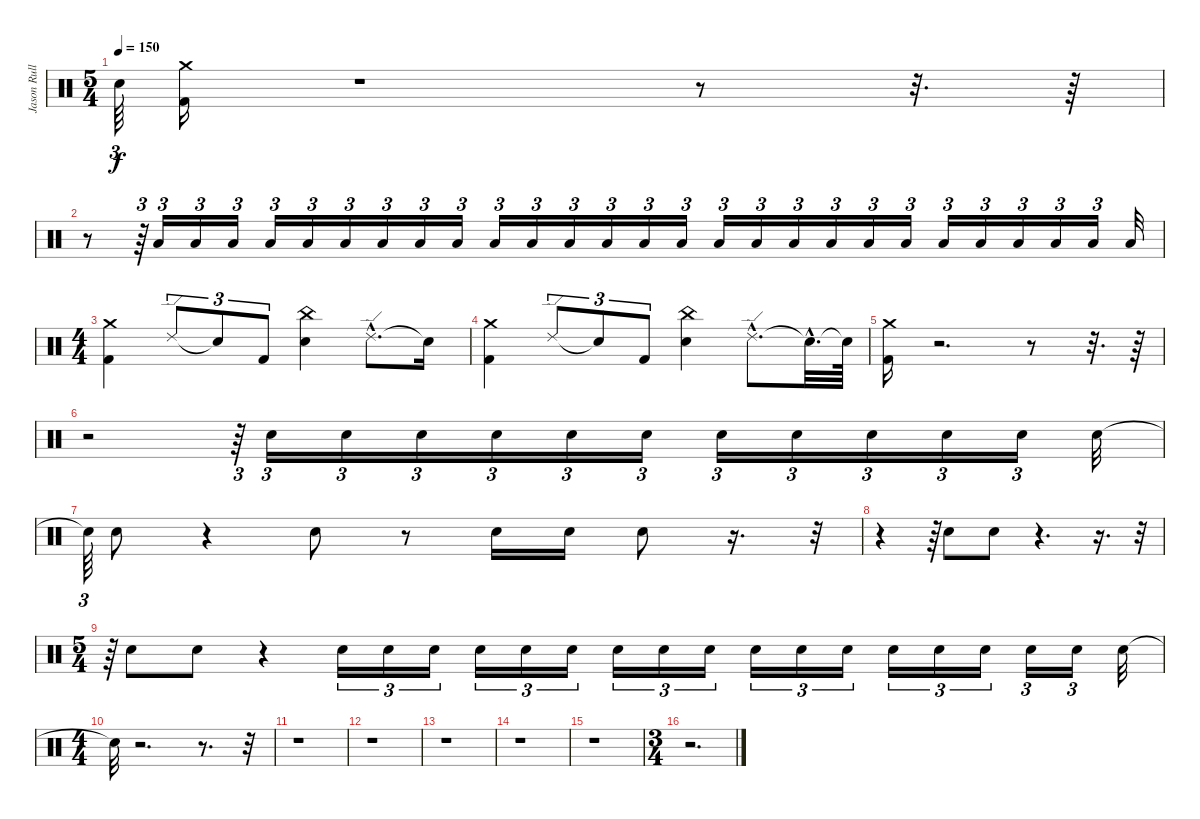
\track ("Jason Rullo" "Jason Rull") {instrument percussion}
\staff {score}
\articulation defaults
\ts (5 4)
\tempo 150
\clef neutral
\ks c "Snare (hit)"{t}.64{tu (3 2) dy f}
("Crash medium (hit)" "Kick (hit) 2").16 r.1 r.8 r.32{d} r.64 |
r.8 r.64{tu (3 2)} "Low Floor Tom (hit)".16{tu (3 2) volume 2} "Low Floor Tom (hit)".16{tu (3 2) volume 2} "Low Floor Tom (hit)".16{tu (3 2) volume 3} "Low Floor Tom (hit)".16{tu (3 2) volume 3} "Low Floor Tom (hit)".16{tu (3 2) volume 4} "Low Floor Tom (hit)".16{tu (3 2) volume 4} "Low Floor Tom (hit)".16{tu (3 2) volume 5} "Low Floor Tom (hit)".16{tu (3 2) volume 5} "Low Floor Tom (hit)".16{tu (3 2) volume 6} "Low Floor Tom (hit)".16{tu (3 2) volume 6} "Low Floor Tom (hit)".16{tu (3 2) volume 7} "Low Floor Tom (hit)".16{tu (3 2) volume 7} "Low Floor Tom (hit)".16{tu (3 2) volume 8} "Low Floor Tom (hit)".16{tu (3 2) volume 8} "Low Floor Tom (hit)".16{tu (3 2) volume 9} "Low Floor Tom (hit)".16{tu (3 2) volume 10} "Low Floor Tom (hit)".16{tu (3 2) volume 10} "Low Floor Tom (hit)".16{tu (3 2) volume 11} "Low Floor Tom (hit)".16{tu (3 2) volume 11} "Low Floor Tom (hit)".16{tu (3 2) volume 12} "Low Floor Tom (hit)".16{tu (3 2) volume 12} "Low Floor Tom (hit)".16{tu (3 2) volume 13} "Low Floor Tom (hit)".16{tu (3 2) volume 13} "Low Floor Tom (hit)".16{tu (3 2) volume 14} "Low Floor Tom (hit)".16{tu (3 2) volume 14} "Low Floor Tom (hit)".16{tu (3 2) volume 15} "Low Floor Tom (hit)".32{volume 15} |
\ts (4 4)
("Crash medium (hit)" "Kick (hit) 2").4{volume 16} "Ride (edge) 2".8{tu (3 2)} "Snare (hit)"{t}.8{tu (3 2)} "Kick (hit) 2".8{tu (3 2)} ("China (hit)" "Electric Snare (hit)").4 "Ride (edge) 2"{hac}.8{d} "Snare (hit)"{t}.16 |
("Crash medium (hit)" "Kick (hit) 2").4 "Ride (edge) 2".8{tu (3 2)} "Snare (hit)"{t}.8{tu (3 2)} "Kick (hit) 2".8{tu (3 2)} ("China (hit)" "Electric Snare (hit)").4 "Ride (edge) 2"{hac}.8{d} "Snare (hit)"{hac t}.32{d} "Snare (hit)"{t}.64 |
("Crash medium (hit)" "Kick (hit) 2").16 r.2{d} r.8 r.32{d} r.64 |
r.2 r.64{tu (3 2)} "Electric Snare (hit)".16{tu (3 2) volume 0} "Electric Snare (hit)".16{tu (3 2) volume 1} "Electric Snare (hit)".16{tu (3 2) volume 3} "Electric Snare (hit)".16{tu (3 2) volume 4} "Electric Snare (hit)".16{tu (3 2) volume 5} "Electric Snare (hit)".16{tu (3 2) volume 7} "Electric Snare (hit)".16{tu (3 2) volume 8} "Electric Snare (hit)".16{tu (3 2) volume 9} "Electric Snare (hit)".16{tu (3 2) volume 11} "Electric Snare (hit)".16{tu (3 2) volume 12} "Electric Snare (hit)".16{tu (3 2) volume 13} "Electric Snare (hit)".32{volume 15} |
"Snare (hit)"{t}.64{tu (3 2)} "Electric Snare (hit)".8{volume 16} r.4 "Electric Snare (hit)".8 r.8 "Electric Snare (hit)".16 "Electric Snare (hit)".16 "Electric Snare (hit)".8 r.16{d} r.32{tu (3 2)} |
r.4 r.64{tu (3 2)} "Electric Snare (hit)".8 "Electric Snare (hit)".8 r.4{d} r.16{d} r.32{tu (3 2)} |
\ts (5 4)
r.64{tu (3 2)} "Electric Snare (hit)".8 "Electric Snare (hit)".8 r.4 "Electric Snare (hit)".16{tu (3 2) volume 0} "Electric Snare (hit)".16{tu (3 2) volume 1} "Electric Snare (hit)".16{tu (3 2) volume 2} "Electric Snare (hit)".16{tu (3 2) volume 2} "Electric Snare (hit)".16{tu (3 2) volume 3} "Electric Snare (hit)".16{tu (3 2) volume 4} "Electric Snare (hit)".16{tu (3 2) volume 5} "Electric Snare (hit)".16{tu (3 2) volume 6} "Electric Snare (hit)".16{tu (3 2) volume 7} "Electric Snare (hit)".16{tu (3 2) volume 8} "Electric Snare (hit)".16{tu (3 2) volume 8} "Electric Snare (hit)".16{tu (3 2) volume 9} "Electric Snare (hit)".16{tu (3 2) volume 10} "Electric Snare (hit)".16{tu (3 2) volume 11} "Electric Snare (hit)".16{tu (3 2) volume 12} "Electric Snare (hit)".16{tu (3 2) volume 12} "Electric Snare (hit)".16{tu (3 2) volume 13} "Electric Snare (hit)".32{volume 14} |
\ts (4 4)
"Snare (hit)"{t}.32 r.2{d} r.8{d} r.32 |
r.1 |
r.1 |
r.1 |
r.1 |
r.1 |
\ts (3 4)
r.2{d}
